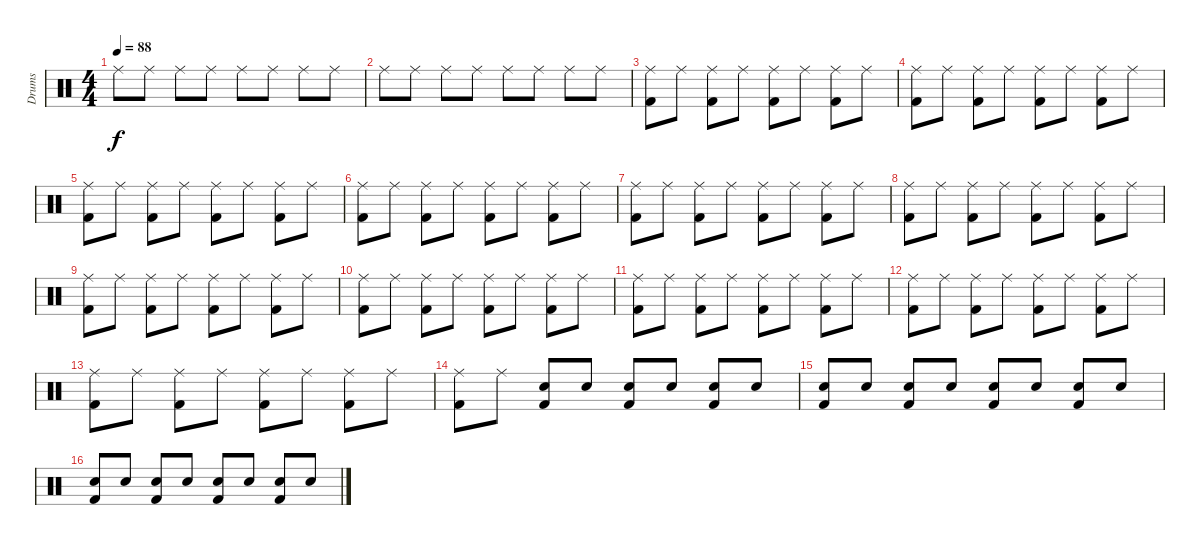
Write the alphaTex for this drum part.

\track ("Drums" "Drums") {instrument percussion}
\staff {score}
\articulation defaults
\ts (4 4)
\tempo 88
\clef neutral
\ks c "Ride (middle)".8{dy f volume 12} "Ride (middle)".8 "Ride (middle)".8{volume 8} "Ride (middle)".8 "Ride (middle)".8{volume 12} "Ride (middle)".8 "Ride (middle)".8{volume 8} "Ride (middle)".8
|
"Ride (middle)".8{volume 12} "Ride (middle)".8 "Ride (middle)".8{volume 8} "Ride (middle)".8 "Ride (middle)".8{volume 12} "Ride (middle)".8 "Ride (middle)".8{volume 8} "Ride (middle)".8 |
("Ride (middle)" "Kick (hit) 2").8{volume 12} "Ride (middle)".8 ("Ride (middle)" "Kick (hit) 2").8{volume 8} "Ride (middle)".8 ("Ride (middle)" "Kick (hit) 2").8{volume 12} "Ride (middle)".8 ("Ride (middle)" "Kick (hit) 2").8{volume 8} "Ride (middle)".8 |
("Ride (middle)" "Kick (hit) 2").8{volume 12} "Ride (middle)".8 ("Ride (middle)" "Kick (hit) 2").8{volume 8} "Ride (middle)".8 ("Ride (middle)" "Kick (hit) 2").8{volume 12} "Ride (middle)".8 ("Ride (middle)" "Kick (hit) 2").8{volume 8} "Ride (middle)".8 |
("Ride (middle)" "Kick (hit) 2").8{volume 12} "Ride (middle)".8 ("Ride (middle)" "Kick (hit) 2").8{volume 8} "Ride (middle)".8 ("Ride (middle)" "Kick (hit) 2").8{volume 12} "Ride (middle)".8 ("Ride (middle)" "Kick (hit) 2").8{volume 8} "Ride (middle)".8 |
("Ride (middle)" "Kick (hit) 2").8{volume 12} "Ride (middle)".8 ("Ride (middle)" "Kick (hit) 2").8{volume 8} "Ride (middle)".8 ("Ride (middle)" "Kick (hit) 2").8{volume 12} "Ride (middle)".8 ("Ride (middle)" "Kick (hit) 2").8{volume 8} "Ride (middle)".8 |
("Ride (middle)" "Kick (hit) 2").8{volume 12} "Ride (middle)".8 ("Ride (middle)" "Kick (hit) 2").8{volume 8} "Ride (middle)".8 ("Ride (middle)" "Kick (hit) 2").8{volume 12} "Ride (middle)".8 ("Ride (middle)" "Kick (hit) 2").8{volume 8} "Ride (middle)".8 |
("Ride (middle)" "Kick (hit) 2").8{volume 12} "Ride (middle)".8 ("Ride (middle)" "Kick (hit) 2").8{volume 8} "Ride (middle)".8 ("Ride (middle)" "Kick (hit) 2").8{volume 12} "Ride (middle)".8 ("Ride (middle)" "Kick (hit) 2").8{volume 8} "Ride (middle)".8 |
("Ride (middle)" "Kick (hit) 2").8{volume 12} "Ride (middle)".8 ("Ride (middle)" "Kick (hit) 2").8{volume 8} "Ride (middle)".8 ("Ride (middle)" "Kick (hit) 2").8{volume 12} "Ride (middle)".8 ("Ride (middle)" "Kick (hit) 2").8{volume 8} "Ride (middle)".8 |
("Ride (middle)" "Kick (hit) 2").8{volume 12} "Ride (middle)".8 ("Ride (middle)" "Kick (hit) 2").8{volume 8} "Ride (middle)".8 ("Ride (middle)" "Kick (hit) 2").8{volume 12} "Ride (middle)".8 ("Ride (middle)" "Kick (hit) 2").8{volume 8} "Ride (middle)".8 |
("Ride (middle)" "Kick (hit) 2").8{volume 12} "Ride (middle)".8 ("Ride (middle)" "Kick (hit) 2").8{volume 8} "Ride (middle)".8 ("Ride (middle)" "Kick (hit) 2").8{volume 12} "Ride (middle)".8 ("Ride (middle)" "Kick (hit) 2").8{volume 8} "Ride (middle)".8 |
("Ride (middle)" "Kick (hit) 2").8{volume 12} "Ride (middle)".8 ("Ride (middle)" "Kick (hit) 2").8{volume 8} "Ride (middle)".8 ("Ride (middle)" "Kick (hit) 2").8{volume 12} "Ride (middle)".8 ("Ride (middle)" "Kick (hit) 2").8{volume 8} "Ride (middle)".8 |
("Ride (middle)" "Kick (hit) 2").8{volume 12} "Ride (middle)".8 ("Ride (middle)" "Kick (hit) 2").8{volume 8} "Ride (middle)".8 ("Ride (middle)" "Kick (hit) 2").8{volume 12} "Ride (middle)".8 ("Ride (middle)" "Kick (hit) 2").8{volume 8} "Ride (middle)".8 |
("Ride (middle)" "Kick (hit) 2").8{volume 12} "Ride (middle)".8 ("Electric Snare (hit)" "Kick (hit) 2").8{volume 3} "Electric Snare (hit)".8 ("Electric Snare (hit)" "Kick (hit) 2").8{volume 3} "Electric Snare (hit)".8 ("Electric Snare (hit)" "Kick (hit) 2").8{volume 5} "Electric Snare (hit)".8 |
("Electric Snare (hit)" "Kick (hit) 2").8{volume 5} "Electric Snare (hit)".8 ("Electric Snare (hit)" "Kick (hit) 2").8{volume 7} "Electric Snare (hit)".8 ("Electric Snare (hit)" "Kick (hit) 2").8{volume 7} "Electric Snare (hit)".8 ("Electric Snare (hit)" "Kick (hit) 2").8{volume 9} "Electric Snare (hit)".8 |
("Electric Snare (hit)" "Kick (hit) 2").8{volume 9} "Electric Snare (hit)".8 ("Electric Snare (hit)" "Kick (hit) 2").8{volume 10} "Electric Snare (hit)".8 ("Electric Snare (hit)" "Kick (hit) 2").8{volume 10} "Electric Snare (hit)".8 ("Electric Snare (hit)" "Kick (hit) 2").8{volume 10} "Electric Snare (hit)".8
